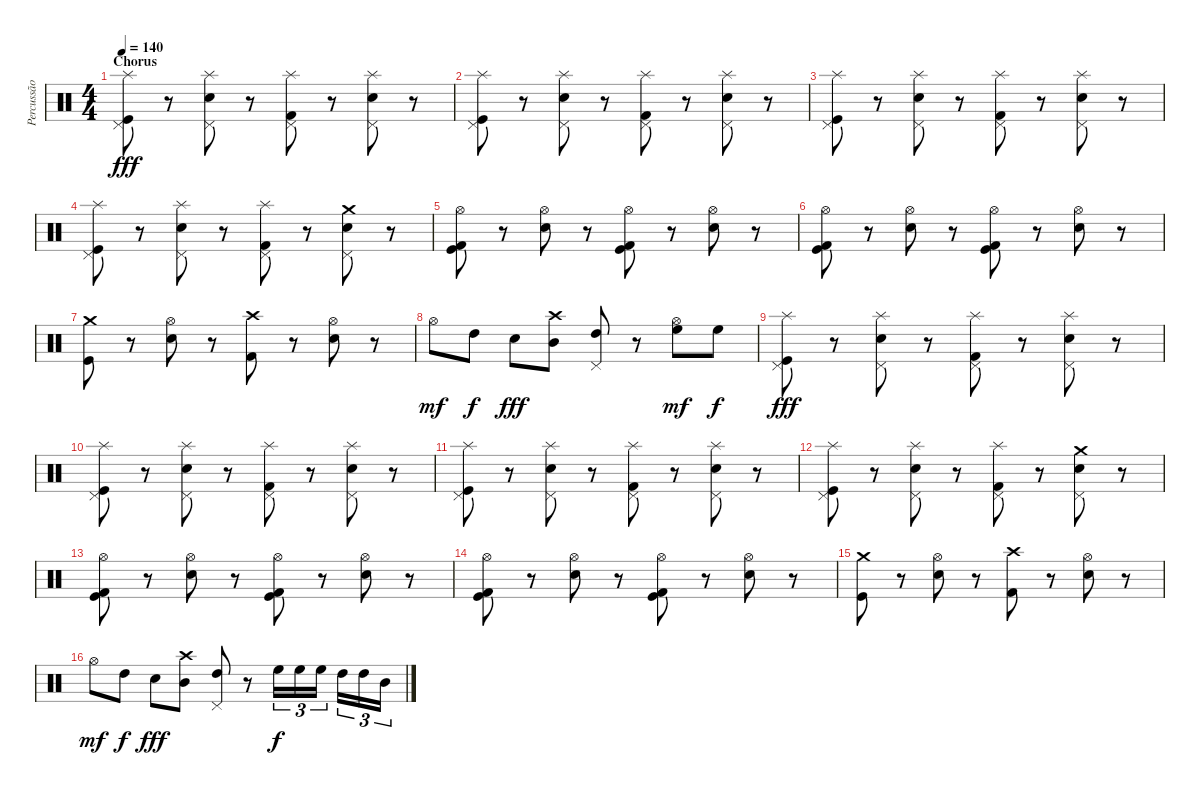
\track ("Percussão (Lucas)" "Percussão ") {instrument percussion}
\staff {score}
\articulation defaults
\ts (4 4)
\section ("" "Chorus")
\tempo 140
\clef neutral
\ks c
("Splash (hit)" "Pedal Hi-Hat (hit)" "Kick (hit)").8{dy fff} r.8 ("Splash (hit)" "Pedal Hi-Hat (hit)" "Electric Snare (hit)").8 r.8 ("Splash (hit)" "Pedal Hi-Hat (hit)" "Kick (hit) 2").8 r.8 ("Splash (hit)" "Pedal Hi-Hat (hit)" "Electric Snare (hit)").8 r.8 |
("Splash (hit)" "Pedal Hi-Hat (hit)" "Kick (hit)").8 r.8 ("Splash (hit)" "Pedal Hi-Hat (hit)" "Electric Snare (hit)").8 r.8 ("Splash (hit)" "Pedal Hi-Hat (hit)" "Kick (hit) 2").8 r.8 ("Splash (hit)" "Pedal Hi-Hat (hit)" "Electric Snare (hit)").8 r.8 |
("Splash (hit)" "Pedal Hi-Hat (hit)" "Kick (hit)").8 r.8 ("Splash (hit)" "Pedal Hi-Hat (hit)" "Electric Snare (hit)").8 r.8 ("Splash (hit)" "Pedal Hi-Hat (hit)" "Kick (hit) 2").8 r.8 ("Splash (hit)" "Pedal Hi-Hat (hit)" "Electric Snare (hit)").8 r.8 |
("Splash (hit)" "Pedal Hi-Hat (hit)" "Kick (hit)").8 r.8 ("Splash (hit)" "Pedal Hi-Hat (hit)" "Electric Snare (hit)").8 r.8 ("Splash (hit)" "Pedal Hi-Hat (hit)" "Kick (hit) 2").8 r.8 ("Crash medium (hit)" "Pedal Hi-Hat (hit)" "Electric Snare (hit)").8 r.8 |
("Hi-Hat (open)" "Kick (hit) 2" "Kick (hit)").8 r.8 ("Hi-Hat (open)" "Electric Snare (hit)").8 r.8 ("Hi-Hat (open)" "Kick (hit) 2" "Kick (hit)").8 r.8 ("Hi-Hat (open)" "Electric Snare (hit)").8 r.8 |
("Hi-Hat (open)" "Kick (hit) 2" "Kick (hit)").8 r.8 ("Hi-Hat (open)" "Electric Snare (hit)").8 r.8 ("Hi-Hat (open)" "Kick (hit) 2" "Kick (hit)").8 r.8 ("Hi-Hat (open)" "Electric Snare (hit)").8 r.8 |
("Crash medium (hit)" "Kick (hit)").8 r.8 ("Hi-Hat (open)" "Electric Snare (hit)").8 r.8 ("Crash high (hit)" "Kick (hit) 2").8 r.8 ("Hi-Hat (open)" "Electric Snare (hit)").8 r.8 |
"Hi-Hat (open)".8{dy mf} "High Tom (hit)".8{dy f} "Electric Snare (hit)".8{dy fff} ("Crash high (hit)" "Mid Tom (hit)").8 ("Pedal Hi-Hat (hit)" "High Tom (hit)").8 r.8 ("Hi-Hat (open)" "High Floor Tom (hit)").8{dy mf} "High Floor Tom (hit)".8{dy f} |
("Splash (hit)" "Pedal Hi-Hat (hit)" "Kick (hit)").8{dy fff} r.8 ("Splash (hit)" "Pedal Hi-Hat (hit)" "Electric Snare (hit)").8 r.8 ("Splash (hit)" "Pedal Hi-Hat (hit)" "Kick (hit) 2").8 r.8 ("Splash (hit)" "Pedal Hi-Hat (hit)" "Electric Snare (hit)").8 r.8 |
("Splash (hit)" "Pedal Hi-Hat (hit)" "Kick (hit)").8 r.8 ("Splash (hit)" "Pedal Hi-Hat (hit)" "Electric Snare (hit)").8 r.8 ("Splash (hit)" "Pedal Hi-Hat (hit)" "Kick (hit) 2").8 r.8 ("Splash (hit)" "Pedal Hi-Hat (hit)" "Electric Snare (hit)").8 r.8 |
("Splash (hit)" "Pedal Hi-Hat (hit)" "Kick (hit)").8 r.8 ("Splash (hit)" "Pedal Hi-Hat (hit)" "Electric Snare (hit)").8 r.8 ("Splash (hit)" "Pedal Hi-Hat (hit)" "Kick (hit) 2").8 r.8 ("Splash (hit)" "Pedal Hi-Hat (hit)" "Electric Snare (hit)").8 r.8 |
("Splash (hit)" "Pedal Hi-Hat (hit)" "Kick (hit)").8 r.8 ("Splash (hit)" "Pedal Hi-Hat (hit)" "Electric Snare (hit)").8 r.8 ("Splash (hit)" "Pedal Hi-Hat (hit)" "Kick (hit) 2").8 r.8 ("Crash medium (hit)" "Pedal Hi-Hat (hit)" "Electric Snare (hit)").8 r.8 |
("Hi-Hat (open)" "Kick (hit) 2" "Kick (hit)").8 r.8 ("Hi-Hat (open)" "Electric Snare (hit)").8 r.8 ("Hi-Hat (open)" "Kick (hit) 2" "Kick (hit)").8 r.8 ("Hi-Hat (open)" "Electric Snare (hit)").8 r.8 |
("Hi-Hat (open)" "Kick (hit) 2" "Kick (hit)").8 r.8 ("Hi-Hat (open)" "Electric Snare (hit)").8 r.8 ("Hi-Hat (open)" "Kick (hit) 2" "Kick (hit)").8 r.8 ("Hi-Hat (open)" "Electric Snare (hit)").8 r.8 |
("Crash medium (hit)" "Kick (hit)").8 r.8 ("Hi-Hat (open)" "Electric Snare (hit)").8 r.8 ("Crash high (hit)" "Kick (hit) 2").8 r.8 ("Hi-Hat (open)" "Electric Snare (hit)").8 r.8 |
"Hi-Hat (open)".8{dy mf} "High Tom (hit)".8{dy f} "Electric Snare (hit)".8{dy fff} ("Crash high (hit)" "Mid Tom (hit)").8 ("Pedal Hi-Hat (hit)" "High Tom (hit)").8 r.8 "High Floor Tom (hit)".16{tu (3 2) dy f} "High Floor Tom (hit)".16{tu (3 2)} "High Floor Tom (hit)".16{tu (3 2)} "High Tom (hit)".16{tu (3 2)} "High Tom (hit)".16{tu (3 2)} "Mid Tom (hit)".16{tu (3 2)}
